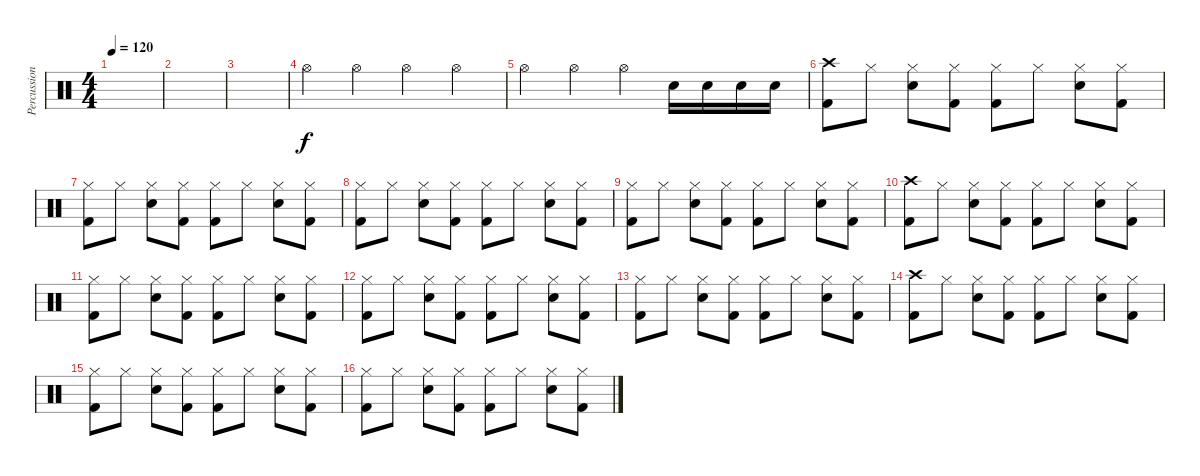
\track ("Percussion" "Percussion") {instrument percussion}
\staff {score}
\articulation defaults
\ts (4 4)
\tempo 120
\clef neutral
\ks c
|
|
|
"Hi-Hat (open)".4 "Hi-Hat (open)".4 "Hi-Hat (open)".4 "Hi-Hat (open)".4 |
"Hi-Hat (open)".4 "Hi-Hat (open)".4 "Hi-Hat (open)".4 "Snare (hit) 2".16{dy f} "Snare (hit) 2".16 "Snare (hit) 2".16 "Snare (hit) 2".16 |
("Crash high (hit)" "Kick (hit) 2").8 "Hi-Hat (closed)".8 ("Hi-Hat (closed)" "Snare (hit) 2").8 ("Hi-Hat (closed)" "Kick (hit) 2").8 ("Hi-Hat (closed)" "Kick (hit) 2").8 "Hi-Hat (closed)".8 ("Hi-Hat (closed)" "Snare (hit) 2").8 ("Hi-Hat (closed)" "Kick (hit) 2").8 |
("Hi-Hat (closed)" "Kick (hit) 2").8 "Hi-Hat (closed)".8 ("Hi-Hat (closed)" "Snare (hit) 2").8 ("Hi-Hat (closed)" "Kick (hit) 2").8 ("Hi-Hat (closed)" "Kick (hit) 2").8 "Hi-Hat (closed)".8 ("Hi-Hat (closed)" "Snare (hit) 2").8 ("Hi-Hat (closed)" "Kick (hit) 2").8 |
("Hi-Hat (closed)" "Kick (hit) 2").8 "Hi-Hat (closed)".8 ("Hi-Hat (closed)" "Snare (hit) 2").8 ("Hi-Hat (closed)" "Kick (hit) 2").8 ("Hi-Hat (closed)" "Kick (hit) 2").8 "Hi-Hat (closed)".8 ("Hi-Hat (closed)" "Snare (hit) 2").8 ("Hi-Hat (closed)" "Kick (hit) 2").8 |
("Hi-Hat (closed)" "Kick (hit) 2").8 "Hi-Hat (closed)".8 ("Hi-Hat (closed)" "Snare (hit) 2").8 ("Hi-Hat (closed)" "Kick (hit) 2").8 ("Hi-Hat (closed)" "Kick (hit) 2").8 "Hi-Hat (closed)".8 ("Hi-Hat (closed)" "Snare (hit) 2").8 ("Hi-Hat (closed)" "Kick (hit) 2").8 |
("Crash high (hit)" "Kick (hit) 2").8 "Hi-Hat (closed)".8 ("Hi-Hat (closed)" "Snare (hit) 2").8 ("Hi-Hat (closed)" "Kick (hit) 2").8 ("Hi-Hat (closed)" "Kick (hit) 2").8 "Hi-Hat (closed)".8 ("Hi-Hat (closed)" "Snare (hit) 2").8 ("Hi-Hat (closed)" "Kick (hit) 2").8 |
("Hi-Hat (closed)" "Kick (hit) 2").8 "Hi-Hat (closed)".8 ("Hi-Hat (closed)" "Snare (hit) 2").8 ("Hi-Hat (closed)" "Kick (hit) 2").8 ("Hi-Hat (closed)" "Kick (hit) 2").8 "Hi-Hat (closed)".8 ("Hi-Hat (closed)" "Snare (hit) 2").8 ("Hi-Hat (closed)" "Kick (hit) 2").8 |
("Hi-Hat (closed)" "Kick (hit) 2").8 "Hi-Hat (closed)".8 ("Hi-Hat (closed)" "Snare (hit) 2").8 ("Hi-Hat (closed)" "Kick (hit) 2").8 ("Hi-Hat (closed)" "Kick (hit) 2").8 "Hi-Hat (closed)".8 ("Hi-Hat (closed)" "Snare (hit) 2").8 ("Hi-Hat (closed)" "Kick (hit) 2").8 |
("Hi-Hat (closed)" "Kick (hit) 2").8 "Hi-Hat (closed)".8 ("Hi-Hat (closed)" "Snare (hit) 2").8 ("Hi-Hat (closed)" "Kick (hit) 2").8 ("Hi-Hat (closed)" "Kick (hit) 2").8 "Hi-Hat (closed)".8 ("Hi-Hat (closed)" "Snare (hit) 2").8 ("Hi-Hat (closed)" "Kick (hit) 2").8 |
("Crash high (hit)" "Kick (hit) 2").8 "Hi-Hat (closed)".8 ("Hi-Hat (closed)" "Snare (hit) 2").8 ("Hi-Hat (closed)" "Kick (hit) 2").8 ("Hi-Hat (closed)" "Kick (hit) 2").8 "Hi-Hat (closed)".8 ("Hi-Hat (closed)" "Snare (hit) 2").8 ("Hi-Hat (closed)" "Kick (hit) 2").8 |
("Hi-Hat (closed)" "Kick (hit) 2").8 "Hi-Hat (closed)".8 ("Hi-Hat (closed)" "Snare (hit) 2").8 ("Hi-Hat (closed)" "Kick (hit) 2").8 ("Hi-Hat (closed)" "Kick (hit) 2").8 "Hi-Hat (closed)".8 ("Hi-Hat (closed)" "Snare (hit) 2").8 ("Hi-Hat (closed)" "Kick (hit) 2").8 |
("Hi-Hat (closed)" "Kick (hit) 2").8 "Hi-Hat (closed)".8 ("Hi-Hat (closed)" "Snare (hit) 2").8 ("Hi-Hat (closed)" "Kick (hit) 2").8 ("Hi-Hat (closed)" "Kick (hit) 2").8 "Hi-Hat (closed)".8 ("Hi-Hat (closed)" "Snare (hit) 2").8 ("Hi-Hat (closed)" "Kick (hit) 2").8
